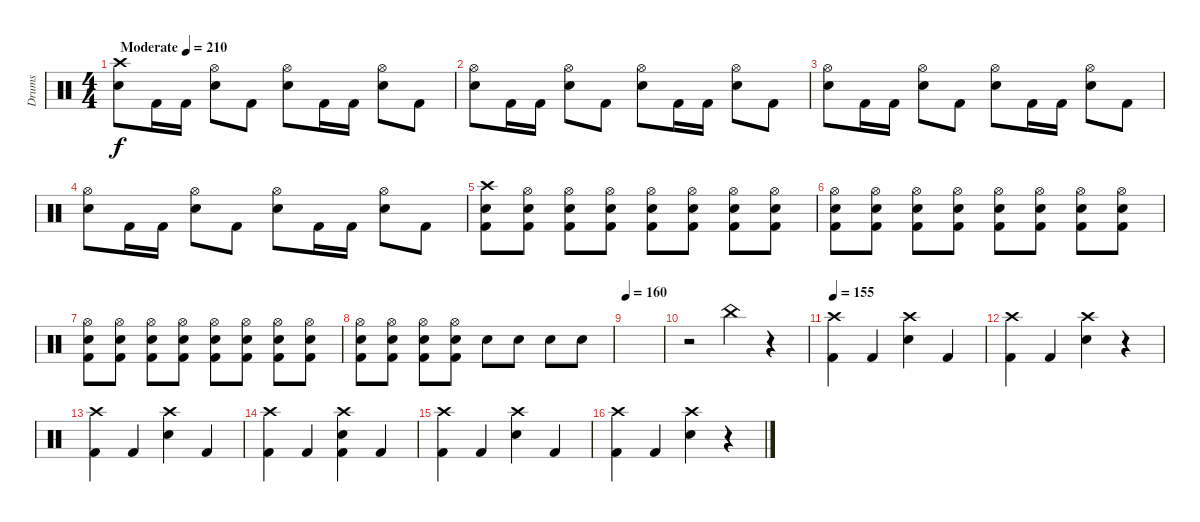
\track ("Drums" "Drums") {instrument percussion}
\staff {score}
\articulation defaults
\ts (4 4)
\tempo (210 "Moderate")
\clef neutral
\ks c
("Crash high (hit)" "Snare (hit) 2").8{dy f} "Kick (hit) 2".16 "Kick (hit) 2".16 ("Hi-Hat (open)" "Snare (hit) 2").8 "Kick (hit) 2".8 ("Hi-Hat (open)" "Snare (hit) 2").8 "Kick (hit) 2".16 "Kick (hit) 2".16 ("Hi-Hat (open)" "Snare (hit) 2").8 "Kick (hit) 2".8 |
("Hi-Hat (open)" "Snare (hit) 2").8 "Kick (hit) 2".16 "Kick (hit) 2".16 ("Hi-Hat (open)" "Snare (hit) 2").8 "Kick (hit) 2".8 ("Hi-Hat (open)" "Snare (hit) 2").8 "Kick (hit) 2".16 "Kick (hit) 2".16 ("Hi-Hat (open)" "Snare (hit) 2").8 "Kick (hit) 2".8 |
("Hi-Hat (open)" "Snare (hit) 2").8 "Kick (hit) 2".16 "Kick (hit) 2".16 ("Hi-Hat (open)" "Snare (hit) 2").8 "Kick (hit) 2".8 ("Hi-Hat (open)" "Snare (hit) 2").8 "Kick (hit) 2".16 "Kick (hit) 2".16 ("Hi-Hat (open)" "Snare (hit) 2").8 "Kick (hit) 2".8 |
("Hi-Hat (open)" "Snare (hit) 2").8 "Kick (hit) 2".16 "Kick (hit) 2".16 ("Hi-Hat (open)" "Snare (hit) 2").8 "Kick (hit) 2".8 ("Hi-Hat (open)" "Snare (hit) 2").8 "Kick (hit) 2".16 "Kick (hit) 2".16 ("Hi-Hat (open)" "Snare (hit) 2").8 "Kick (hit) 2".8 |
("Crash high (hit)" "Snare (hit) 2" "Kick (hit) 2").8 ("Hi-Hat (open)" "Snare (hit) 2" "Kick (hit) 2").8 ("Hi-Hat (open)" "Snare (hit) 2" "Kick (hit) 2").8 ("Hi-Hat (open)" "Snare (hit) 2" "Kick (hit) 2").8 ("Hi-Hat (open)" "Snare (hit) 2" "Kick (hit) 2").8 ("Hi-Hat (open)" "Snare (hit) 2" "Kick (hit) 2").8 ("Hi-Hat (open)" "Snare (hit) 2" "Kick (hit) 2").8 ("Hi-Hat (open)" "Snare (hit) 2" "Kick (hit) 2").8 |
("Hi-Hat (open)" "Snare (hit) 2" "Kick (hit) 2").8 ("Hi-Hat (open)" "Snare (hit) 2" "Kick (hit) 2").8 ("Hi-Hat (open)" "Snare (hit) 2" "Kick (hit) 2").8 ("Hi-Hat (open)" "Snare (hit) 2" "Kick (hit) 2").8 ("Hi-Hat (open)" "Snare (hit) 2" "Kick (hit) 2").8 ("Hi-Hat (open)" "Snare (hit) 2" "Kick (hit) 2").8 ("Hi-Hat (open)" "Snare (hit) 2" "Kick (hit) 2").8 ("Hi-Hat (open)" "Snare (hit) 2" "Kick (hit) 2").8 |
("Hi-Hat (open)" "Snare (hit) 2" "Kick (hit) 2").8 ("Hi-Hat (open)" "Snare (hit) 2" "Kick (hit) 2").8 ("Hi-Hat (open)" "Snare (hit) 2" "Kick (hit) 2").8 ("Hi-Hat (open)" "Snare (hit) 2" "Kick (hit) 2").8 ("Hi-Hat (open)" "Snare (hit) 2" "Kick (hit) 2").8 ("Hi-Hat (open)" "Snare (hit) 2" "Kick (hit) 2").8 ("Hi-Hat (open)" "Snare (hit) 2" "Kick (hit) 2").8 ("Hi-Hat (open)" "Snare (hit) 2" "Kick (hit) 2").8 |
("Hi-Hat (open)" "Snare (hit) 2" "Kick (hit) 2").8 ("Hi-Hat (open)" "Snare (hit) 2" "Kick (hit) 2").8 ("Hi-Hat (open)" "Snare (hit) 2" "Kick (hit) 2").8 ("Hi-Hat (open)" "Snare (hit) 2" "Kick (hit) 2").8 "Snare (hit) 2".8 "Snare (hit) 2".8 "Snare (hit) 2".8 "Snare (hit) 2".8 |
\tempo 160
|
r.2 "China (hit)".4 r.4 |
\tempo 155
("Crash high (hit)" "Kick (hit) 2").4 "Kick (hit) 2".4 ("Crash high (hit)" "Snare (hit) 2").4 "Kick (hit) 2".4 |
("Crash high (hit)" "Kick (hit) 2").4 "Kick (hit) 2".4 ("Crash high (hit)" "Snare (hit) 2").4 r.4 |
("Crash high (hit)" "Kick (hit) 2").4 "Kick (hit) 2".4 ("Crash high (hit)" "Snare (hit) 2").4 "Kick (hit) 2".4 |
("Crash high (hit)" "Kick (hit) 2").4 "Kick (hit) 2".4 ("Crash high (hit)" "Snare (hit) 2" "Kick (hit) 2").4 "Kick (hit) 2".4 |
("Crash high (hit)" "Kick (hit) 2").4 "Kick (hit) 2".4 ("Crash high (hit)" "Snare (hit) 2").4 "Kick (hit) 2".4 |
("Crash high (hit)" "Kick (hit) 2").4 "Kick (hit) 2".4 ("Crash high (hit)" "Snare (hit) 2").4 r.4
